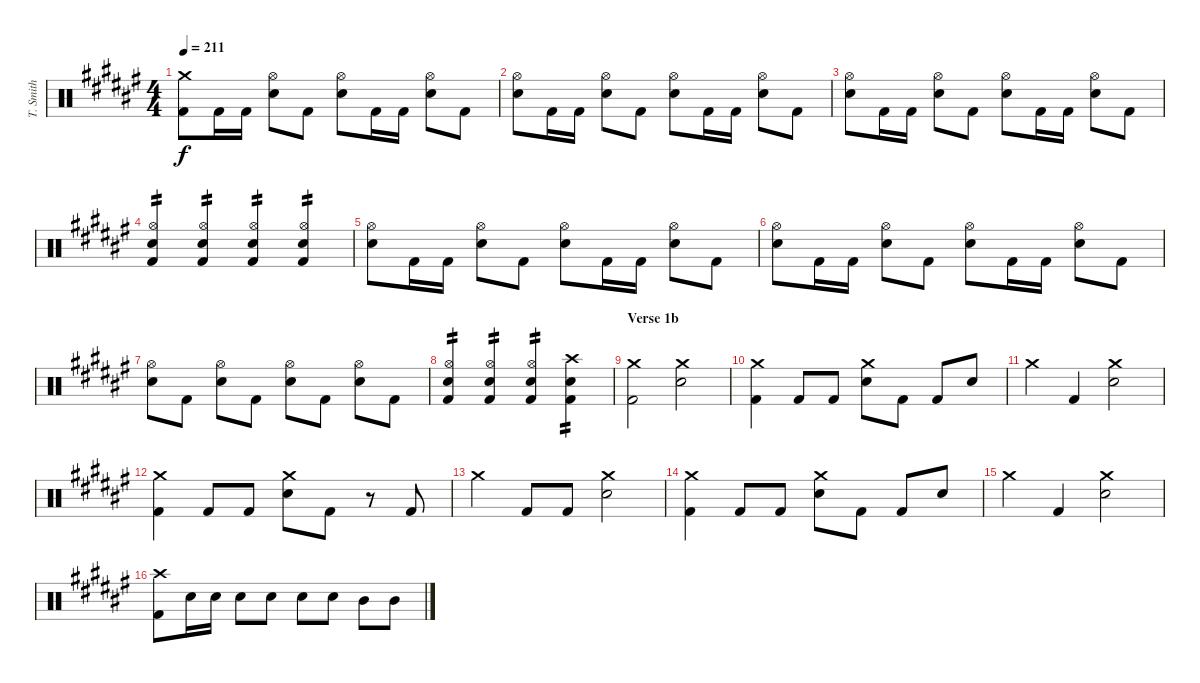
\track ("T. Smith" "T. Smith") {instrument percussion}
\staff {score}
\articulation defaults
\ts (4 4)
\tempo 211
\clef neutral
\ks d#minor
("Crash medium (hit)" "Kick (hit) 2").8{dy f} "Kick (hit) 2".16 "Kick (hit) 2".16 ("Hi-Hat (open)" "Electric Snare (hit)").8 "Kick (hit) 2".8 ("Hi-Hat (open)" "Electric Snare (hit)").8 "Kick (hit) 2".16 "Kick (hit) 2".16 ("Hi-Hat (open)" "Electric Snare (hit)").8 "Kick (hit) 2".8 |
("Hi-Hat (open)" "Electric Snare (hit)").8 "Kick (hit) 2".16 "Kick (hit) 2".16 ("Hi-Hat (open)" "Electric Snare (hit)").8 "Kick (hit) 2".8 ("Hi-Hat (open)" "Electric Snare (hit)").8 "Kick (hit) 2".16 "Kick (hit) 2".16 ("Hi-Hat (open)" "Electric Snare (hit)").8 "Kick (hit) 2".8 |
("Hi-Hat (open)" "Electric Snare (hit)").8 "Kick (hit) 2".16 "Kick (hit) 2".16 ("Hi-Hat (open)" "Electric Snare (hit)").8 "Kick (hit) 2".8 ("Hi-Hat (open)" "Electric Snare (hit)").8 "Kick (hit) 2".16 "Kick (hit) 2".16 ("Hi-Hat (open)" "Electric Snare (hit)").8 "Kick (hit) 2".8 |
("Hi-Hat (open)" "Electric Snare (hit)" "Kick (hit) 2").4{tp 2} ("Hi-Hat (open)" "Electric Snare (hit)" "Kick (hit) 2").4{tp 2} ("Hi-Hat (open)" "Electric Snare (hit)" "Kick (hit) 2").4{tp 2} ("Hi-Hat (open)" "Electric Snare (hit)" "Kick (hit) 2").4{tp 2} |
("Hi-Hat (open)" "Electric Snare (hit)").8 "Kick (hit) 2".16 "Kick (hit) 2".16 ("Hi-Hat (open)" "Electric Snare (hit)").8 "Kick (hit) 2".8 ("Hi-Hat (open)" "Electric Snare (hit)").8 "Kick (hit) 2".16 "Kick (hit) 2".16 ("Hi-Hat (open)" "Electric Snare (hit)").8 "Kick (hit) 2".8 |
("Hi-Hat (open)" "Electric Snare (hit)").8 "Kick (hit) 2".16 "Kick (hit) 2".16 ("Hi-Hat (open)" "Electric Snare (hit)").8 "Kick (hit) 2".8 ("Hi-Hat (open)" "Electric Snare (hit)").8 "Kick (hit) 2".16 "Kick (hit) 2".16 ("Hi-Hat (open)" "Electric Snare (hit)").8 "Kick (hit) 2".8 |
("Hi-Hat (open)" "Electric Snare (hit)").8 "Kick (hit) 2".8 ("Hi-Hat (open)" "Electric Snare (hit)").8 "Kick (hit) 2".8 ("Hi-Hat (open)" "Electric Snare (hit)").8 "Kick (hit) 2".8 ("Hi-Hat (open)" "Electric Snare (hit)").8 "Kick (hit) 2".8 |
("Hi-Hat (open)" "Electric Snare (hit)" "Kick (hit) 2").4{tp 2} ("Hi-Hat (open)" "Electric Snare (hit)" "Kick (hit) 2").4{tp 2} ("Hi-Hat (open)" "Electric Snare (hit)" "Kick (hit) 2").4{tp 2} ("Crash high (hit)" "Electric Snare (hit)" "Kick (hit) 2").4{tp 2} |
\section ("" "Verse 1b")
("Crash medium (hit)" "Kick (hit) 2").2 ("Crash medium (hit)" "Electric Snare (hit)").2 |
("Crash medium (hit)" "Kick (hit) 2").4 "Kick (hit) 2".8 "Kick (hit) 2".8 ("Crash medium (hit)" "Electric Snare (hit)").8 "Kick (hit) 2".8 "Kick (hit) 2".8 "Electric Snare (hit)".8 |
"Crash medium (hit)".4 "Kick (hit) 2".4 ("Crash medium (hit)" "Electric Snare (hit)").2 |
("Crash medium (hit)" "Kick (hit) 2").4 "Kick (hit) 2".8 "Kick (hit) 2".8 ("Crash medium (hit)" "Electric Snare (hit)").8 "Kick (hit) 2".8 r.8 "Kick (hit) 2".8 |
"Crash medium (hit)".4 "Kick (hit) 2".8 "Kick (hit) 2".8 ("Crash medium (hit)" "Electric Snare (hit)").2 |
("Crash medium (hit)" "Kick (hit) 2").4 "Kick (hit) 2".8 "Kick (hit) 2".8 ("Crash medium (hit)" "Electric Snare (hit)").8 "Kick (hit) 2".8 "Kick (hit) 2".8 "Electric Snare (hit)".8 |
"Crash medium (hit)".4 "Kick (hit) 2".4 ("Crash medium (hit)" "Electric Snare (hit)").2 |
("Crash high (hit)" "Kick (hit) 2").8 "Electric Snare (hit)".16 "Electric Snare (hit)".16 "Electric Snare (hit)".8 "Electric Snare (hit)".8 "Electric Snare (hit)".8 "Electric Snare (hit)".8 "Mid Tom (hit)".8 "Mid Tom (hit)".8
